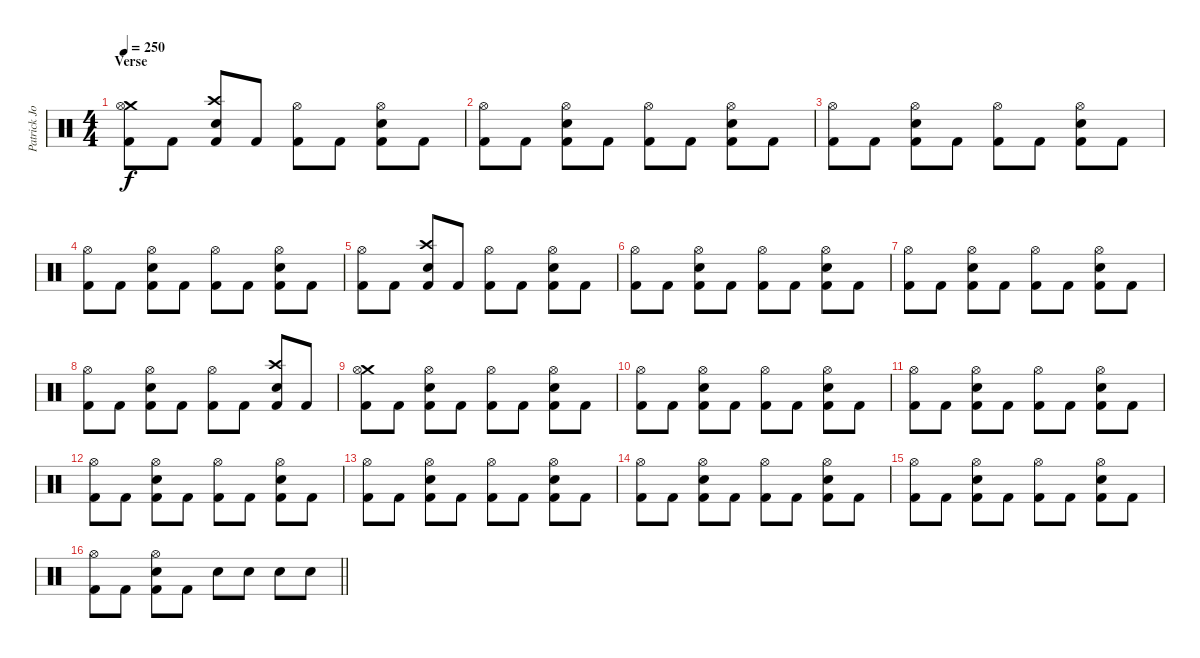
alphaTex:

\track ("Patrick Johansson" "Patrick Jo") {instrument percussion}
\staff {score}
\articulation defaults
\ts (4 4)
\section ("" "Verse")
\tempo 250
\clef neutral
\ks c
("Crash medium (hit)" "Hi-Hat (open)" "Kick (hit) 2").8{dy f} "Kick (hit) 2".8 ("Crash high (hit)" "Snare (hit) 2" "Kick (hit) 2").8 "Kick (hit) 2".8 ("Hi-Hat (open)" "Kick (hit) 2").8 "Kick (hit) 2".8 ("Hi-Hat (open)" "Snare (hit) 2" "Kick (hit) 2").8 "Kick (hit) 2".8 |
("Hi-Hat (open)" "Kick (hit) 2").8 "Kick (hit) 2".8 ("Hi-Hat (open)" "Snare (hit) 2" "Kick (hit) 2").8 "Kick (hit) 2".8 ("Hi-Hat (open)" "Kick (hit) 2").8 "Kick (hit) 2".8 ("Hi-Hat (open)" "Snare (hit) 2" "Kick (hit) 2").8 "Kick (hit) 2".8 |
("Hi-Hat (open)" "Kick (hit) 2").8 "Kick (hit) 2".8 ("Hi-Hat (open)" "Snare (hit) 2" "Kick (hit) 2").8 "Kick (hit) 2".8 ("Hi-Hat (open)" "Kick (hit) 2").8 "Kick (hit) 2".8 ("Hi-Hat (open)" "Snare (hit) 2" "Kick (hit) 2").8 "Kick (hit) 2".8 |
("Hi-Hat (open)" "Kick (hit) 2").8 "Kick (hit) 2".8 ("Hi-Hat (open)" "Snare (hit) 2" "Kick (hit) 2").8 "Kick (hit) 2".8 ("Hi-Hat (open)" "Kick (hit) 2").8 "Kick (hit) 2".8 ("Hi-Hat (open)" "Snare (hit) 2" "Kick (hit) 2").8 "Kick (hit) 2".8 |
("Hi-Hat (open)" "Kick (hit) 2").8 "Kick (hit) 2".8 ("Crash high (hit)" "Snare (hit) 2" "Kick (hit) 2").8 "Kick (hit) 2".8 ("Hi-Hat (open)" "Kick (hit) 2").8 "Kick (hit) 2".8 ("Hi-Hat (open)" "Snare (hit) 2" "Kick (hit) 2").8 "Kick (hit) 2".8 |
("Hi-Hat (open)" "Kick (hit) 2").8 "Kick (hit) 2".8 ("Hi-Hat (open)" "Snare (hit) 2" "Kick (hit) 2").8 "Kick (hit) 2".8 ("Hi-Hat (open)" "Kick (hit) 2").8 "Kick (hit) 2".8 ("Hi-Hat (open)" "Snare (hit) 2" "Kick (hit) 2").8 "Kick (hit) 2".8 |
("Hi-Hat (open)" "Kick (hit) 2").8 "Kick (hit) 2".8 ("Hi-Hat (open)" "Snare (hit) 2" "Kick (hit) 2").8 "Kick (hit) 2".8 ("Hi-Hat (open)" "Kick (hit) 2").8 "Kick (hit) 2".8 ("Hi-Hat (open)" "Snare (hit) 2" "Kick (hit) 2").8 "Kick (hit) 2".8 |
("Hi-Hat (open)" "Kick (hit) 2").8 "Kick (hit) 2".8 ("Hi-Hat (open)" "Snare (hit) 2" "Kick (hit) 2").8 "Kick (hit) 2".8 ("Hi-Hat (open)" "Kick (hit) 2").8 "Kick (hit) 2".8 ("Crash high (hit)" "Snare (hit) 2" "Kick (hit) 2").8 "Kick (hit) 2".8 |
("Crash medium (hit)" "Hi-Hat (open)" "Kick (hit) 2").8 "Kick (hit) 2".8 ("Hi-Hat (open)" "Snare (hit) 2" "Kick (hit) 2").8 "Kick (hit) 2".8 ("Hi-Hat (open)" "Kick (hit) 2").8 "Kick (hit) 2".8 ("Hi-Hat (open)" "Snare (hit) 2" "Kick (hit) 2").8 "Kick (hit) 2".8 |
("Hi-Hat (open)" "Kick (hit) 2").8 "Kick (hit) 2".8 ("Hi-Hat (open)" "Snare (hit) 2" "Kick (hit) 2").8 "Kick (hit) 2".8 ("Hi-Hat (open)" "Kick (hit) 2").8 "Kick (hit) 2".8 ("Hi-Hat (open)" "Snare (hit) 2" "Kick (hit) 2").8 "Kick (hit) 2".8 |
("Hi-Hat (open)" "Kick (hit) 2").8 "Kick (hit) 2".8 ("Hi-Hat (open)" "Snare (hit) 2" "Kick (hit) 2").8 "Kick (hit) 2".8 ("Hi-Hat (open)" "Kick (hit) 2").8 "Kick (hit) 2".8 ("Hi-Hat (open)" "Snare (hit) 2" "Kick (hit) 2").8 "Kick (hit) 2".8 |
("Hi-Hat (open)" "Kick (hit) 2").8 "Kick (hit) 2".8 ("Hi-Hat (open)" "Snare (hit) 2" "Kick (hit) 2").8 "Kick (hit) 2".8 ("Hi-Hat (open)" "Kick (hit) 2").8 "Kick (hit) 2".8 ("Hi-Hat (open)" "Snare (hit) 2" "Kick (hit) 2").8 "Kick (hit) 2".8 |
("Hi-Hat (open)" "Kick (hit) 2").8 "Kick (hit) 2".8 ("Hi-Hat (open)" "Snare (hit) 2" "Kick (hit) 2").8 "Kick (hit) 2".8 ("Hi-Hat (open)" "Kick (hit) 2").8 "Kick (hit) 2".8 ("Hi-Hat (open)" "Snare (hit) 2" "Kick (hit) 2").8 "Kick (hit) 2".8 |
("Hi-Hat (open)" "Kick (hit) 2").8 "Kick (hit) 2".8 ("Hi-Hat (open)" "Snare (hit) 2" "Kick (hit) 2").8 "Kick (hit) 2".8 ("Hi-Hat (open)" "Kick (hit) 2").8 "Kick (hit) 2".8 ("Hi-Hat (open)" "Snare (hit) 2" "Kick (hit) 2").8 "Kick (hit) 2".8 |
("Hi-Hat (open)" "Kick (hit) 2").8 "Kick (hit) 2".8 ("Hi-Hat (open)" "Snare (hit) 2" "Kick (hit) 2").8 "Kick (hit) 2".8 ("Hi-Hat (open)" "Kick (hit) 2").8 "Kick (hit) 2".8 ("Hi-Hat (open)" "Snare (hit) 2" "Kick (hit) 2").8 "Kick (hit) 2".8 |
\barLineRight lightlight
("Hi-Hat (open)" "Kick (hit) 2").8 "Kick (hit) 2".8 ("Hi-Hat (open)" "Snare (hit) 2" "Kick (hit) 2").8 "Kick (hit) 2".8 "Snare (hit) 2".8 "Snare (hit) 2".8 "Snare (hit) 2".8 "Snare (hit) 2".8
